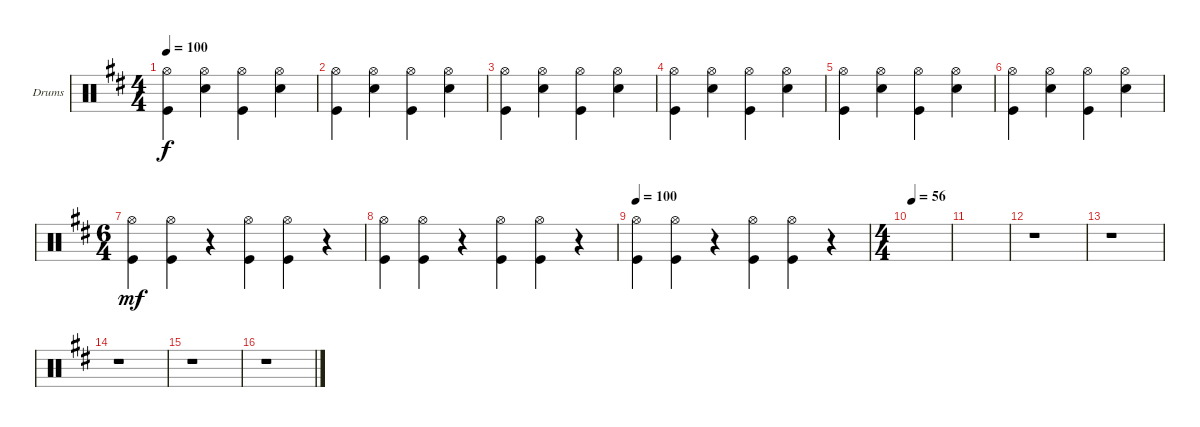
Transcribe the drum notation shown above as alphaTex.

\bracketExtendMode groupsimilarinstruments
\firstSystemTrackNameOrientation horizontal
\otherSystemsTrackNameOrientation horizontal
\track ("Drumkit" "Drums") {instrument percussion}
\staff {score}
\articulation defaults
\ts (4 4)
\tempo 100
\clef neutral
\scale
0.941992
\ks d
("Hi-Hat (open)" "Kick (hit)").4{dy f} ("Hi-Hat (open)" "Snare (hit) 2").4 ("Hi-Hat (open)" "Kick (hit)").4 ("Hi-Hat (open)" "Snare (hit) 2").4 |
\scale
1.05801 ("Hi-Hat (open)" "Kick (hit)").4 ("Hi-Hat (open)" "Snare (hit) 2").4 ("Hi-Hat (open)" "Kick (hit)").4 ("Hi-Hat (open)" "Snare (hit) 2").4 |
\scale
0.941992 ("Hi-Hat (open)" "Kick (hit)").4 ("Hi-Hat (open)" "Snare (hit) 2").4 ("Hi-Hat (open)" "Kick (hit)").4 ("Hi-Hat (open)" "Snare (hit) 2").4 |
\scale
1.05801 ("Hi-Hat (open)" "Kick (hit)").4 ("Hi-Hat (open)" "Snare (hit) 2").4 ("Hi-Hat (open)" "Kick (hit)").4 ("Hi-Hat (open)" "Snare (hit) 2").4 |
("Hi-Hat (open)" "Kick (hit)").4 ("Hi-Hat (open)" "Snare (hit) 2").4 ("Hi-Hat (open)" "Kick (hit)").4 ("Hi-Hat (open)" "Snare (hit) 2").4 |
\scale
0.941992 ("Hi-Hat (open)" "Kick (hit)").4 ("Hi-Hat (open)" "Snare (hit) 2").4 ("Hi-Hat (open)" "Kick (hit)").4 ("Hi-Hat (open)" "Snare (hit) 2").4 |
\ts (6 4)
\scale
1.05801 ("Hi-Hat (open)" "Kick (hit)").4{dy mf} ("Hi-Hat (open)" "Kick (hit)").4 r.4 ("Hi-Hat (open)" "Kick (hit)").4 ("Hi-Hat (open)" "Kick (hit)").4 r.4 |
\scale
0.941992 ("Hi-Hat (open)" "Kick (hit)").4 ("Hi-Hat (open)" "Kick (hit)").4 r.4 ("Hi-Hat (open)" "Kick (hit)").4 ("Hi-Hat (open)" "Kick (hit)").4 r.4 |
\tempo 100
\scale
1.05801 ("Hi-Hat (open)" "Kick (hit)").4 ("Hi-Hat (open)" "Kick (hit)").4 r.4 ("Hi-Hat (open)" "Kick (hit)").4 ("Hi-Hat (open)" "Kick (hit)").4 r.4 |
\ts (4 4)
\tempo (56 0.0125)
\scale
0.941992 |
\scale
1.05801 |
\scale
0.941992 r.1 |
\scale
1.05801 r.1 |
\scale
0.941992 r.1 |
\scale
1.05801 r.1 |
\scale
0.941992 r.1
